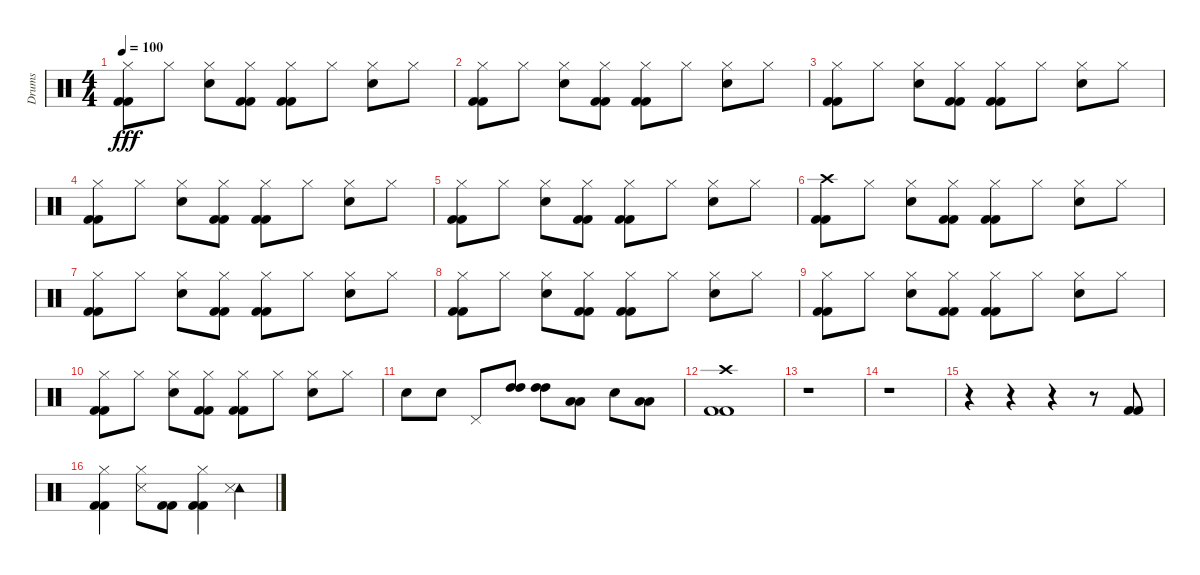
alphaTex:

\track ("Drums" "Drums") {instrument percussion}
\staff {score}
\articulation defaults
\ts (4 4)
\tempo 100
\clef neutral
\ks c
("Hi-Hat (closed)" "Kick (hit) 2" "Kick (hit) 2").8{dy fff} "Hi-Hat (closed)".8 ("Hi-Hat (closed)" "Electric Snare (hit)").8 ("Hi-Hat (closed)" "Kick (hit) 2" "Kick (hit) 2").8 ("Hi-Hat (closed)" "Kick (hit) 2" "Kick (hit) 2").8 "Hi-Hat (closed)".8 ("Hi-Hat (closed)" "Electric Snare (hit)").8 "Hi-Hat (closed)".8 |
("Hi-Hat (closed)" "Kick (hit) 2" "Kick (hit) 2").8 "Hi-Hat (closed)".8 ("Hi-Hat (closed)" "Electric Snare (hit)").8 ("Hi-Hat (closed)" "Kick (hit) 2" "Kick (hit) 2").8 ("Hi-Hat (closed)" "Kick (hit) 2" "Kick (hit) 2").8 "Hi-Hat (closed)".8 ("Hi-Hat (closed)" "Electric Snare (hit)").8 "Hi-Hat (closed)".8 |
("Hi-Hat (closed)" "Kick (hit) 2" "Kick (hit) 2").8 "Hi-Hat (closed)".8 ("Hi-Hat (closed)" "Electric Snare (hit)").8 ("Hi-Hat (closed)" "Kick (hit) 2" "Kick (hit) 2").8 ("Hi-Hat (closed)" "Kick (hit) 2" "Kick (hit) 2").8 "Hi-Hat (closed)".8 ("Hi-Hat (closed)" "Electric Snare (hit)").8 "Hi-Hat (closed)".8 |
("Hi-Hat (closed)" "Kick (hit) 2" "Kick (hit) 2").8 "Hi-Hat (closed)".8 ("Hi-Hat (closed)" "Electric Snare (hit)").8 ("Hi-Hat (closed)" "Kick (hit) 2" "Kick (hit) 2").8 ("Hi-Hat (closed)" "Kick (hit) 2" "Kick (hit) 2").8 "Hi-Hat (closed)".8 ("Hi-Hat (closed)" "Electric Snare (hit)").8 "Hi-Hat (closed)".8 |
("Hi-Hat (closed)" "Kick (hit) 2" "Kick (hit) 2").8 "Hi-Hat (closed)".8 ("Hi-Hat (closed)" "Electric Snare (hit)").8 ("Hi-Hat (closed)" "Kick (hit) 2" "Kick (hit) 2").8 ("Hi-Hat (closed)" "Kick (hit) 2" "Kick (hit) 2").8 "Hi-Hat (closed)".8 ("Hi-Hat (closed)" "Electric Snare (hit)").8 "Hi-Hat (closed)".8 |
("Crash high (hit)" "Kick (hit) 2" "Kick (hit) 2").8 "Hi-Hat (closed)".8 ("Hi-Hat (closed)" "Electric Snare (hit)").8 ("Hi-Hat (closed)" "Kick (hit) 2" "Kick (hit) 2").8 ("Hi-Hat (closed)" "Kick (hit) 2" "Kick (hit) 2").8 "Hi-Hat (closed)".8 ("Hi-Hat (closed)" "Electric Snare (hit)").8 "Hi-Hat (closed)".8 |
("Hi-Hat (closed)" "Kick (hit) 2" "Kick (hit) 2").8 "Hi-Hat (closed)".8 ("Hi-Hat (closed)" "Electric Snare (hit)").8 ("Hi-Hat (closed)" "Kick (hit) 2" "Kick (hit) 2").8 ("Hi-Hat (closed)" "Kick (hit) 2" "Kick (hit) 2").8 "Hi-Hat (closed)".8 ("Hi-Hat (closed)" "Electric Snare (hit)").8 "Hi-Hat (closed)".8 |
("Hi-Hat (closed)" "Kick (hit) 2" "Kick (hit) 2").8 "Hi-Hat (closed)".8 ("Hi-Hat (closed)" "Electric Snare (hit)").8 ("Hi-Hat (closed)" "Kick (hit) 2" "Kick (hit) 2").8 ("Hi-Hat (closed)" "Kick (hit) 2" "Kick (hit) 2").8 "Hi-Hat (closed)".8 ("Hi-Hat (closed)" "Electric Snare (hit)").8 "Hi-Hat (closed)".8 |
("Hi-Hat (closed)" "Kick (hit) 2" "Kick (hit) 2").8 "Hi-Hat (closed)".8 ("Hi-Hat (closed)" "Electric Snare (hit)").8 ("Hi-Hat (closed)" "Kick (hit) 2" "Kick (hit) 2").8 ("Hi-Hat (closed)" "Kick (hit) 2" "Kick (hit) 2").8 "Hi-Hat (closed)".8 ("Hi-Hat (closed)" "Electric Snare (hit)").8 "Hi-Hat (closed)".8 |
("Hi-Hat (closed)" "Kick (hit) 2" "Kick (hit) 2").8 "Hi-Hat (closed)".8 ("Hi-Hat (closed)" "Electric Snare (hit)").8 ("Hi-Hat (closed)" "Kick (hit) 2" "Kick (hit) 2").8 ("Hi-Hat (closed)" "Kick (hit) 2" "Kick (hit) 2").8 "Hi-Hat (closed)".8 ("Hi-Hat (closed)" "Electric Snare (hit)").8 "Hi-Hat (closed)".8 |
"Electric Snare (hit)".8 "Electric Snare (hit)".8 "Pedal Hi-Hat (hit)".8 ("High Tom (hit)" "High Tom (hit)").8 ("High Tom (hit)" "High Tom (hit)").8 ("Low Tom (hit)" "Low Tom (hit)").8 "Electric Snare (hit)".8 ("Low Tom (hit)" "Low Tom (hit)").8 |
("Crash high (hit)" "Kick (hit) 2" "Kick (hit) 2").1 |
r.1 |
r.1 |
r.4 r.4 r.4 r.8 ("Kick (hit) 2" "Kick (hit) 2").8 |
("Hi-Hat (closed)" "Kick (hit) 2" "Kick (hit) 2").4 ("Hi-Hat (closed)" "Snare (side stick) 3").8 ("Kick (hit) 2" "Kick (hit) 2").8 ("Hi-Hat (closed)" "Kick (hit) 2" "Kick (hit) 2").4 ("Tambourine (hit)" "Snare (side stick) 3").4
